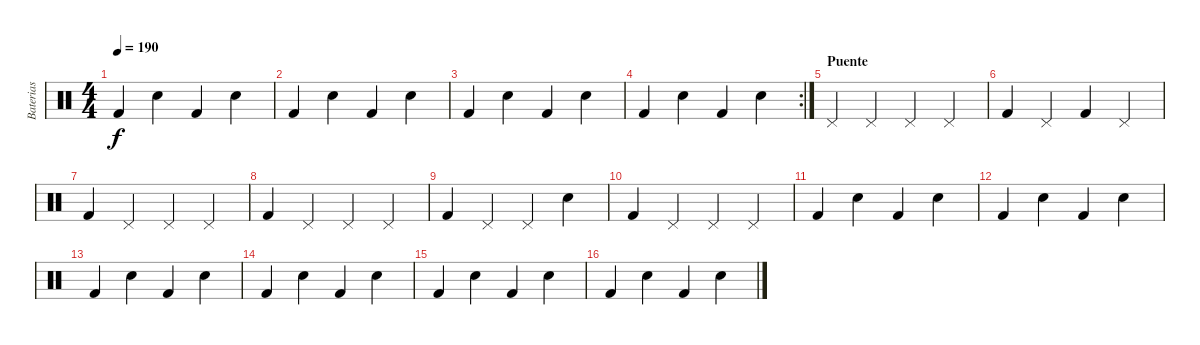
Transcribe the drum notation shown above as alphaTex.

\track ("Baterias" "Baterias") {instrument percussion}
\staff {score}
\articulation defaults
\ts (4 4)
\tempo 190
\clef neutral
\ks c "Kick (hit) 2".4{dy f} "Electric Snare (hit)".4 "Kick (hit) 2".4 "Electric Snare (hit)".4
|
"Kick (hit) 2".4 "Electric Snare (hit)".4 "Kick (hit) 2".4 "Electric Snare (hit)".4 |
"Kick (hit) 2".4 "Electric Snare (hit)".4 "Kick (hit) 2".4 "Electric Snare (hit)".4 |
\rc 2 "Kick (hit) 2".4 "Electric Snare (hit)".4 "Kick (hit) 2".4 "Electric Snare (hit)".4
|
\section ("" "Puente")
"Pedal Hi-Hat (hit)".4 "Pedal Hi-Hat (hit)".4 "Pedal Hi-Hat (hit)".4 "Pedal Hi-Hat (hit)".4 |
"Kick (hit) 2".4 "Pedal Hi-Hat (hit)".4 "Kick (hit) 2".4 "Pedal Hi-Hat (hit)".4 |
"Kick (hit) 2".4 "Pedal Hi-Hat (hit)".4 "Pedal Hi-Hat (hit)".4 "Pedal Hi-Hat (hit)".4 |
"Kick (hit) 2".4 "Pedal Hi-Hat (hit)".4 "Pedal Hi-Hat (hit)".4 "Pedal Hi-Hat (hit)".4 |
"Kick (hit) 2".4 "Pedal Hi-Hat (hit)".4 "Pedal Hi-Hat (hit)".4 "Electric Snare (hit)".4 |
"Kick (hit) 2".4 "Pedal Hi-Hat (hit)".4 "Pedal Hi-Hat (hit)".4 "Pedal Hi-Hat (hit)".4 |
"Kick (hit) 2".4 "Electric Snare (hit)".4 "Kick (hit) 2".4 "Electric Snare (hit)".4 |
"Kick (hit) 2".4 "Electric Snare (hit)".4 "Kick (hit) 2".4 "Electric Snare (hit)".4 |
"Kick (hit) 2".4 "Electric Snare (hit)".4 "Kick (hit) 2".4 "Electric Snare (hit)".4 |
"Kick (hit) 2".4 "Electric Snare (hit)".4 "Kick (hit) 2".4 "Electric Snare (hit)".4 |
"Kick (hit) 2".4 "Electric Snare (hit)".4 "Kick (hit) 2".4 "Electric Snare (hit)".4 |
"Kick (hit) 2".4 "Electric Snare (hit)".4 "Kick (hit) 2".4 "Electric Snare (hit)".4
